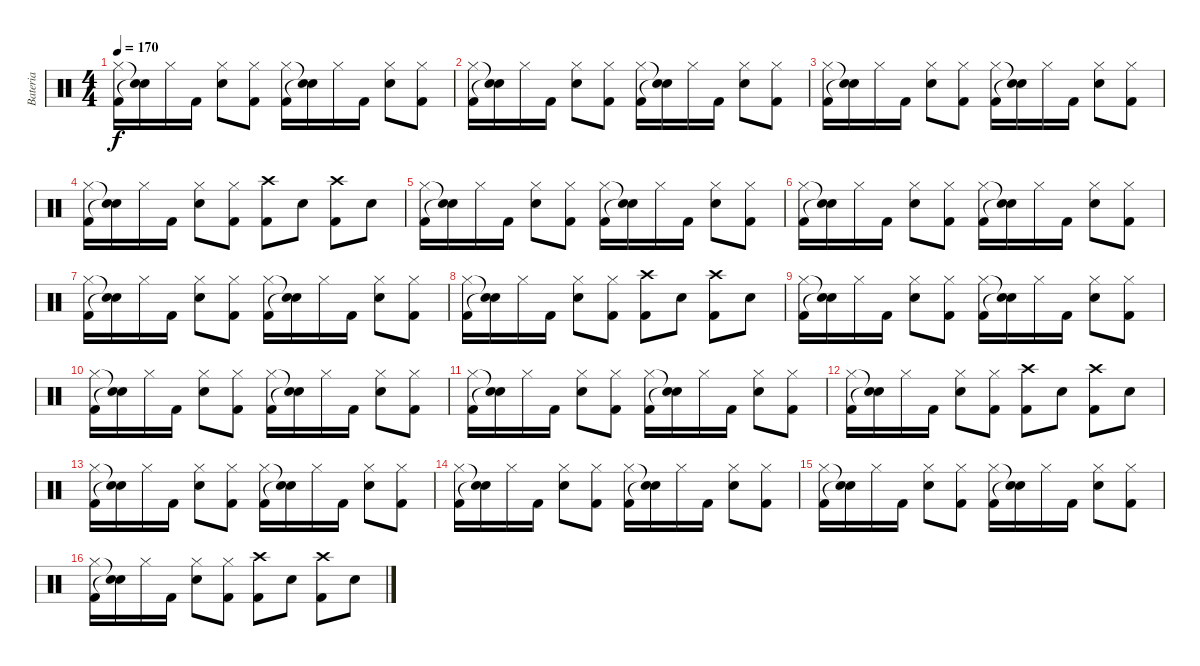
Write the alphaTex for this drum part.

\track ("Bateria" "Bateria") {instrument percussion}
\staff {score}
\articulation defaults
\ts (4 4)
\tempo 170
\clef neutral
\ks c
("Hi-Hat (closed)" "Kick (hit) 2").16{dy f} ("Snare (hit)"{t} "Snare (hit)"{t}).16 "Hi-Hat (closed)".16 "Kick (hit) 2".16 ("Hi-Hat (closed)" "Snare (hit) 2").8 ("Hi-Hat (closed)" "Kick (hit) 2").8 ("Hi-Hat (closed)" "Kick (hit) 2").16 ("Snare (hit)"{t} "Snare (hit)"{t}).16 "Hi-Hat (closed)".16 "Kick (hit) 2".16 ("Hi-Hat (closed)" "Snare (hit) 2").8 ("Hi-Hat (closed)" "Kick (hit) 2").8 |
("Hi-Hat (closed)" "Kick (hit) 2").16 ("Snare (hit)"{t} "Snare (hit)"{t}).16 "Hi-Hat (closed)".16 "Kick (hit) 2".16 ("Hi-Hat (closed)" "Snare (hit) 2").8 ("Hi-Hat (closed)" "Kick (hit) 2").8 ("Hi-Hat (closed)" "Kick (hit) 2").16 ("Snare (hit)"{t} "Snare (hit)"{t}).16 "Hi-Hat (closed)".16 "Kick (hit) 2".16 ("Hi-Hat (closed)" "Snare (hit) 2").8 ("Hi-Hat (closed)" "Kick (hit) 2").8 |
("Hi-Hat (closed)" "Kick (hit) 2").16 ("Snare (hit)"{t} "Snare (hit)"{t}).16 "Hi-Hat (closed)".16 "Kick (hit) 2".16 ("Hi-Hat (closed)" "Snare (hit) 2").8 ("Hi-Hat (closed)" "Kick (hit) 2").8 ("Hi-Hat (closed)" "Kick (hit) 2").16 ("Snare (hit)"{t} "Snare (hit)"{t}).16 "Hi-Hat (closed)".16 "Kick (hit) 2".16 ("Hi-Hat (closed)" "Snare (hit) 2").8 ("Hi-Hat (closed)" "Kick (hit) 2").8 |
("Hi-Hat (closed)" "Kick (hit) 2").16 ("Snare (hit)"{t} "Snare (hit)"{t}).16 "Hi-Hat (closed)".16 "Kick (hit) 2".16 ("Hi-Hat (closed)" "Snare (hit) 2").8 ("Hi-Hat (closed)" "Kick (hit) 2").8 ("Crash high (hit)" "Kick (hit) 2").8 "Snare (hit) 2".8 ("Crash high (hit)" "Kick (hit) 2").8 "Snare (hit) 2".8 |
\section ("" "")
("Hi-Hat (closed)" "Kick (hit) 2").16 ("Snare (hit)"{t} "Snare (hit)"{t}).16 "Hi-Hat (closed)".16 "Kick (hit) 2".16 ("Hi-Hat (closed)" "Snare (hit) 2").8 ("Hi-Hat (closed)" "Kick (hit) 2").8 ("Hi-Hat (closed)" "Kick (hit) 2").16 ("Snare (hit)"{t} "Snare (hit)"{t}).16 "Hi-Hat (closed)".16 "Kick (hit) 2".16 ("Hi-Hat (closed)" "Snare (hit) 2").8 ("Hi-Hat (closed)" "Kick (hit) 2").8 |
("Hi-Hat (closed)" "Kick (hit) 2").16 ("Snare (hit)"{t} "Snare (hit)"{t}).16 "Hi-Hat (closed)".16 "Kick (hit) 2".16 ("Hi-Hat (closed)" "Snare (hit) 2").8 ("Hi-Hat (closed)" "Kick (hit) 2").8 ("Hi-Hat (closed)" "Kick (hit) 2").16 ("Snare (hit)"{t} "Snare (hit)"{t}).16 "Hi-Hat (closed)".16 "Kick (hit) 2".16 ("Hi-Hat (closed)" "Snare (hit) 2").8 ("Hi-Hat (closed)" "Kick (hit) 2").8 |
("Hi-Hat (closed)" "Kick (hit) 2").16 ("Snare (hit)"{t} "Snare (hit)"{t}).16 "Hi-Hat (closed)".16 "Kick (hit) 2".16 ("Hi-Hat (closed)" "Snare (hit) 2").8 ("Hi-Hat (closed)" "Kick (hit) 2").8 ("Hi-Hat (closed)" "Kick (hit) 2").16 ("Snare (hit)"{t} "Snare (hit)"{t}).16 "Hi-Hat (closed)".16 "Kick (hit) 2".16 ("Hi-Hat (closed)" "Snare (hit) 2").8 ("Hi-Hat (closed)" "Kick (hit) 2").8 |
("Hi-Hat (closed)" "Kick (hit) 2").16 ("Snare (hit)"{t} "Snare (hit)"{t}).16 "Hi-Hat (closed)".16 "Kick (hit) 2".16 ("Hi-Hat (closed)" "Snare (hit) 2").8 ("Hi-Hat (closed)" "Kick (hit) 2").8 ("Crash high (hit)" "Kick (hit) 2").8 "Snare (hit) 2".8 ("Crash high (hit)" "Kick (hit) 2").8 "Snare (hit) 2".8 |
("Hi-Hat (closed)" "Kick (hit) 2").16 ("Snare (hit)"{t} "Snare (hit)"{t}).16 "Hi-Hat (closed)".16 "Kick (hit) 2".16 ("Hi-Hat (closed)" "Snare (hit) 2").8 ("Hi-Hat (closed)" "Kick (hit) 2").8 ("Hi-Hat (closed)" "Kick (hit) 2").16 ("Snare (hit)"{t} "Snare (hit)"{t}).16 "Hi-Hat (closed)".16 "Kick (hit) 2".16 ("Hi-Hat (closed)" "Snare (hit) 2").8 ("Hi-Hat (closed)" "Kick (hit) 2").8 |
("Hi-Hat (closed)" "Kick (hit) 2").16 ("Snare (hit)"{t} "Snare (hit)"{t}).16 "Hi-Hat (closed)".16 "Kick (hit) 2".16 ("Hi-Hat (closed)" "Snare (hit) 2").8 ("Hi-Hat (closed)" "Kick (hit) 2").8 ("Hi-Hat (closed)" "Kick (hit) 2").16 ("Snare (hit)"{t} "Snare (hit)"{t}).16 "Hi-Hat (closed)".16 "Kick (hit) 2".16 ("Hi-Hat (closed)" "Snare (hit) 2").8 ("Hi-Hat (closed)" "Kick (hit) 2").8 |
("Hi-Hat (closed)" "Kick (hit) 2").16 ("Snare (hit)"{t} "Snare (hit)"{t}).16 "Hi-Hat (closed)".16 "Kick (hit) 2".16 ("Hi-Hat (closed)" "Snare (hit) 2").8 ("Hi-Hat (closed)" "Kick (hit) 2").8 ("Hi-Hat (closed)" "Kick (hit) 2").16 ("Snare (hit)"{t} "Snare (hit)"{t}).16 "Hi-Hat (closed)".16 "Kick (hit) 2".16 ("Hi-Hat (closed)" "Snare (hit) 2").8 ("Hi-Hat (closed)" "Kick (hit) 2").8 |
("Hi-Hat (closed)" "Kick (hit) 2").16 ("Snare (hit)"{t} "Snare (hit)"{t}).16 "Hi-Hat (closed)".16 "Kick (hit) 2".16 ("Hi-Hat (closed)" "Snare (hit) 2").8 ("Hi-Hat (closed)" "Kick (hit) 2").8 ("Crash high (hit)" "Kick (hit) 2").8 "Snare (hit) 2".8 ("Crash high (hit)" "Kick (hit) 2").8 "Snare (hit) 2".8 |
\section ("" "")
("Hi-Hat (closed)" "Kick (hit) 2").16 ("Snare (hit)"{t} "Snare (hit)"{t}).16 "Hi-Hat (closed)".16 "Kick (hit) 2".16 ("Hi-Hat (closed)" "Snare (hit) 2").8 ("Hi-Hat (closed)" "Kick (hit) 2").8 ("Hi-Hat (closed)" "Kick (hit) 2").16 ("Snare (hit)"{t} "Snare (hit)"{t}).16 "Hi-Hat (closed)".16 "Kick (hit) 2".16 ("Hi-Hat (closed)" "Snare (hit) 2").8 ("Hi-Hat (closed)" "Kick (hit) 2").8 |
("Hi-Hat (closed)" "Kick (hit) 2").16 ("Snare (hit)"{t} "Snare (hit)"{t}).16 "Hi-Hat (closed)".16 "Kick (hit) 2".16 ("Hi-Hat (closed)" "Snare (hit) 2").8 ("Hi-Hat (closed)" "Kick (hit) 2").8 ("Hi-Hat (closed)" "Kick (hit) 2").16 ("Snare (hit)"{t} "Snare (hit)"{t}).16 "Hi-Hat (closed)".16 "Kick (hit) 2".16 ("Hi-Hat (closed)" "Snare (hit) 2").8 ("Hi-Hat (closed)" "Kick (hit) 2").8 |
("Hi-Hat (closed)" "Kick (hit) 2").16 ("Snare (hit)"{t} "Snare (hit)"{t}).16 "Hi-Hat (closed)".16 "Kick (hit) 2".16 ("Hi-Hat (closed)" "Snare (hit) 2").8 ("Hi-Hat (closed)" "Kick (hit) 2").8 ("Hi-Hat (closed)" "Kick (hit) 2").16 ("Snare (hit)"{t} "Snare (hit)"{t}).16 "Hi-Hat (closed)".16 "Kick (hit) 2".16 ("Hi-Hat (closed)" "Snare (hit) 2").8 ("Hi-Hat (closed)" "Kick (hit) 2").8 |
("Hi-Hat (closed)" "Kick (hit) 2").16 ("Snare (hit)"{t} "Snare (hit)"{t}).16 "Hi-Hat (closed)".16 "Kick (hit) 2".16 ("Hi-Hat (closed)" "Snare (hit) 2").8 ("Hi-Hat (closed)" "Kick (hit) 2").8 ("Crash high (hit)" "Kick (hit) 2").8 "Snare (hit) 2".8 ("Crash high (hit)" "Kick (hit) 2").8 "Snare (hit) 2".8
